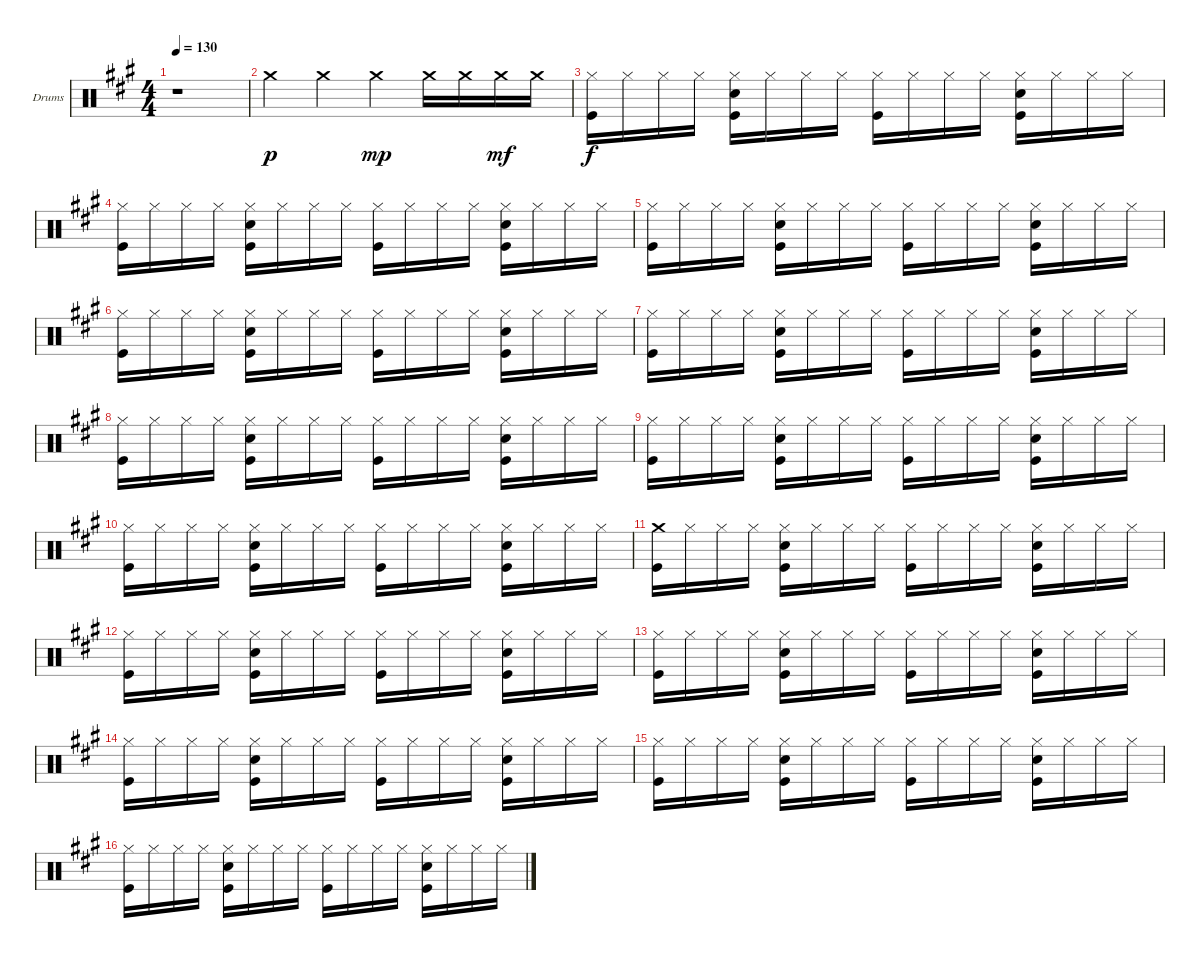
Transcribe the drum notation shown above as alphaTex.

\bracketExtendMode groupsimilarinstruments
\firstSystemTrackNameOrientation horizontal
\otherSystemsTrackNameOrientation horizontal
\track ("DRUMS" "Drums") {instrument percussion}
\staff {score}
\articulation defaults
\ts (4 4)
\beaming (8 2 2 2 2)
\tempo 130
\clef neutral
\ks f#minor
r.1{dy p} |
"Crash medium (hit)".4 "Crash medium (hit)".4 "Crash medium (hit)".4{dy mp} "Crash medium (hit)".16 "Crash medium (hit)".16 "Crash medium (hit)".16{dy mf} "Crash medium (hit)".16 |
("Kick (hit)" "Hi-Hat (closed)").16{dy f} "Hi-Hat (closed)".16 "Hi-Hat (closed)".16 "Hi-Hat (closed)".16 ("Hi-Hat (closed)" "Snare (hit) 2" "Kick (hit)").16 "Hi-Hat (closed)".16 "Hi-Hat (closed)".16 "Hi-Hat (closed)".16 ("Hi-Hat (closed)" "Kick (hit)").16 "Hi-Hat (closed)".16 "Hi-Hat (closed)".16 "Hi-Hat (closed)".16 ("Hi-Hat (closed)" "Snare (hit) 2" "Kick (hit)").16 "Hi-Hat (closed)".16 "Hi-Hat (closed)".16 "Hi-Hat (closed)".16 |
("Hi-Hat (closed)" "Kick (hit)").16 "Hi-Hat (closed)".16 "Hi-Hat (closed)".16 "Hi-Hat (closed)".16 ("Hi-Hat (closed)" "Snare (hit) 2" "Kick (hit)").16 "Hi-Hat (closed)".16 "Hi-Hat (closed)".16 "Hi-Hat (closed)".16 ("Hi-Hat (closed)" "Kick (hit)").16 "Hi-Hat (closed)".16 "Hi-Hat (closed)".16 "Hi-Hat (closed)".16 ("Hi-Hat (closed)" "Snare (hit) 2" "Kick (hit)").16 "Hi-Hat (closed)".16 "Hi-Hat (closed)".16 "Hi-Hat (closed)".16 |
("Hi-Hat (closed)" "Kick (hit)").16 "Hi-Hat (closed)".16 "Hi-Hat (closed)".16 "Hi-Hat (closed)".16 ("Hi-Hat (closed)" "Snare (hit) 2" "Kick (hit)").16 "Hi-Hat (closed)".16 "Hi-Hat (closed)".16 "Hi-Hat (closed)".16 ("Hi-Hat (closed)" "Kick (hit)").16 "Hi-Hat (closed)".16 "Hi-Hat (closed)".16 "Hi-Hat (closed)".16 ("Hi-Hat (closed)" "Snare (hit) 2" "Kick (hit)").16 "Hi-Hat (closed)".16 "Hi-Hat (closed)".16 "Hi-Hat (closed)".16 |
("Hi-Hat (closed)" "Kick (hit)").16 "Hi-Hat (closed)".16 "Hi-Hat (closed)".16 "Hi-Hat (closed)".16 ("Hi-Hat (closed)" "Snare (hit) 2" "Kick (hit)").16 "Hi-Hat (closed)".16 "Hi-Hat (closed)".16 "Hi-Hat (closed)".16 ("Hi-Hat (closed)" "Kick (hit)").16 "Hi-Hat (closed)".16 "Hi-Hat (closed)".16 "Hi-Hat (closed)".16 ("Hi-Hat (closed)" "Snare (hit) 2" "Kick (hit)").16 "Hi-Hat (closed)".16 "Hi-Hat (closed)".16 "Hi-Hat (closed)".16 |
("Kick (hit)" "Hi-Hat (closed)").16 "Hi-Hat (closed)".16 "Hi-Hat (closed)".16 "Hi-Hat (closed)".16 ("Hi-Hat (closed)" "Snare (hit) 2" "Kick (hit)").16 "Hi-Hat (closed)".16 "Hi-Hat (closed)".16 "Hi-Hat (closed)".16 ("Hi-Hat (closed)" "Kick (hit)").16 "Hi-Hat (closed)".16 "Hi-Hat (closed)".16 "Hi-Hat (closed)".16 ("Hi-Hat (closed)" "Snare (hit) 2" "Kick (hit)").16 "Hi-Hat (closed)".16 "Hi-Hat (closed)".16 "Hi-Hat (closed)".16 |
("Hi-Hat (closed)" "Kick (hit)").16 "Hi-Hat (closed)".16 "Hi-Hat (closed)".16 "Hi-Hat (closed)".16 ("Hi-Hat (closed)" "Snare (hit) 2" "Kick (hit)").16 "Hi-Hat (closed)".16 "Hi-Hat (closed)".16 "Hi-Hat (closed)".16 ("Hi-Hat (closed)" "Kick (hit)").16 "Hi-Hat (closed)".16 "Hi-Hat (closed)".16 "Hi-Hat (closed)".16 ("Hi-Hat (closed)" "Snare (hit) 2" "Kick (hit)").16 "Hi-Hat (closed)".16 "Hi-Hat (closed)".16 "Hi-Hat (closed)".16 |
("Hi-Hat (closed)" "Kick (hit)").16 "Hi-Hat (closed)".16 "Hi-Hat (closed)".16 "Hi-Hat (closed)".16 ("Hi-Hat (closed)" "Snare (hit) 2" "Kick (hit)").16 "Hi-Hat (closed)".16 "Hi-Hat (closed)".16 "Hi-Hat (closed)".16 ("Hi-Hat (closed)" "Kick (hit)").16 "Hi-Hat (closed)".16 "Hi-Hat (closed)".16 "Hi-Hat (closed)".16 ("Hi-Hat (closed)" "Snare (hit) 2" "Kick (hit)").16 "Hi-Hat (closed)".16 "Hi-Hat (closed)".16 "Hi-Hat (closed)".16 |
("Hi-Hat (closed)" "Kick (hit)").16 "Hi-Hat (closed)".16 "Hi-Hat (closed)".16 "Hi-Hat (closed)".16 ("Hi-Hat (closed)" "Snare (hit) 2" "Kick (hit)").16 "Hi-Hat (closed)".16 "Hi-Hat (closed)".16 "Hi-Hat (closed)".16 ("Hi-Hat (closed)" "Kick (hit)").16 "Hi-Hat (closed)".16 "Hi-Hat (closed)".16 "Hi-Hat (closed)".16 ("Hi-Hat (closed)" "Snare (hit) 2" "Kick (hit)").16 "Hi-Hat (closed)".16 "Hi-Hat (closed)".16 "Hi-Hat (closed)".16 |
("Kick (hit)" "Crash medium (hit)").16 "Hi-Hat (closed)".16 "Hi-Hat (closed)".16 "Hi-Hat (closed)".16 ("Hi-Hat (closed)" "Snare (hit) 2" "Kick (hit)").16 "Hi-Hat (closed)".16 "Hi-Hat (closed)".16 "Hi-Hat (closed)".16 ("Hi-Hat (closed)" "Kick (hit)").16 "Hi-Hat (closed)".16 "Hi-Hat (closed)".16 "Hi-Hat (closed)".16 ("Hi-Hat (closed)" "Snare (hit) 2" "Kick (hit)").16 "Hi-Hat (closed)".16 "Hi-Hat (closed)".16 "Hi-Hat (closed)".16 |
("Hi-Hat (closed)" "Kick (hit)").16 "Hi-Hat (closed)".16 "Hi-Hat (closed)".16 "Hi-Hat (closed)".16 ("Hi-Hat (closed)" "Snare (hit) 2" "Kick (hit)").16 "Hi-Hat (closed)".16 "Hi-Hat (closed)".16 "Hi-Hat (closed)".16 ("Hi-Hat (closed)" "Kick (hit)").16 "Hi-Hat (closed)".16 "Hi-Hat (closed)".16 "Hi-Hat (closed)".16 ("Hi-Hat (closed)" "Snare (hit) 2" "Kick (hit)").16 "Hi-Hat (closed)".16 "Hi-Hat (closed)".16 "Hi-Hat (closed)".16 |
("Hi-Hat (closed)" "Kick (hit)").16 "Hi-Hat (closed)".16 "Hi-Hat (closed)".16 "Hi-Hat (closed)".16 ("Hi-Hat (closed)" "Snare (hit) 2" "Kick (hit)").16 "Hi-Hat (closed)".16 "Hi-Hat (closed)".16 "Hi-Hat (closed)".16 ("Hi-Hat (closed)" "Kick (hit)").16 "Hi-Hat (closed)".16 "Hi-Hat (closed)".16 "Hi-Hat (closed)".16 ("Hi-Hat (closed)" "Snare (hit) 2" "Kick (hit)").16 "Hi-Hat (closed)".16 "Hi-Hat (closed)".16 "Hi-Hat (closed)".16 |
("Hi-Hat (closed)" "Kick (hit)").16 "Hi-Hat (closed)".16 "Hi-Hat (closed)".16 "Hi-Hat (closed)".16 ("Hi-Hat (closed)" "Snare (hit) 2" "Kick (hit)").16 "Hi-Hat (closed)".16 "Hi-Hat (closed)".16 "Hi-Hat (closed)".16 ("Hi-Hat (closed)" "Kick (hit)").16 "Hi-Hat (closed)".16 "Hi-Hat (closed)".16 "Hi-Hat (closed)".16 ("Hi-Hat (closed)" "Snare (hit) 2" "Kick (hit)").16 "Hi-Hat (closed)".16 "Hi-Hat (closed)".16 "Hi-Hat (closed)".16 |
("Hi-Hat (closed)" "Kick (hit)").16 "Hi-Hat (closed)".16 "Hi-Hat (closed)".16 "Hi-Hat (closed)".16 ("Hi-Hat (closed)" "Snare (hit) 2" "Kick (hit)").16 "Hi-Hat (closed)".16 "Hi-Hat (closed)".16 "Hi-Hat (closed)".16 ("Hi-Hat (closed)" "Kick (hit)").16 "Hi-Hat (closed)".16 "Hi-Hat (closed)".16 "Hi-Hat (closed)".16 ("Hi-Hat (closed)" "Snare (hit) 2" "Kick (hit)").16 "Hi-Hat (closed)".16 "Hi-Hat (closed)".16 "Hi-Hat (closed)".16 |
("Hi-Hat (closed)" "Kick (hit)").16 "Hi-Hat (closed)".16 "Hi-Hat (closed)".16 "Hi-Hat (closed)".16 ("Hi-Hat (closed)" "Snare (hit) 2" "Kick (hit)").16 "Hi-Hat (closed)".16 "Hi-Hat (closed)".16 "Hi-Hat (closed)".16 ("Hi-Hat (closed)" "Kick (hit)").16 "Hi-Hat (closed)".16 "Hi-Hat (closed)".16 "Hi-Hat (closed)".16 ("Hi-Hat (closed)" "Snare (hit) 2" "Kick (hit)").16 "Hi-Hat (closed)".16 "Hi-Hat (closed)".16 "Hi-Hat (closed)".16
